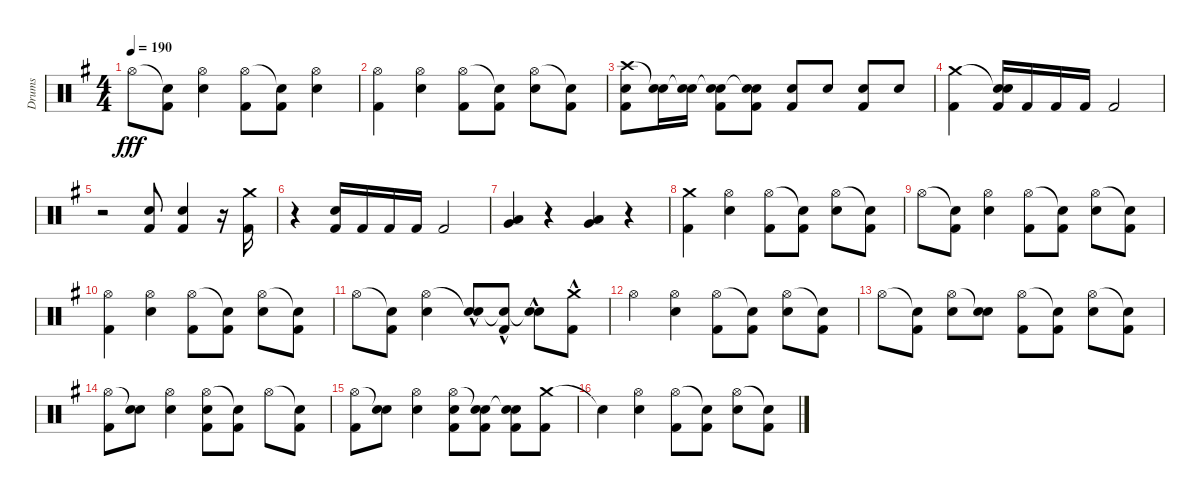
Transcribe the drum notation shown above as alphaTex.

\track ("Drums" "Drums") {instrument percussion}
\staff {score}
\articulation defaults
\ts (4 4)
\tempo 190
\clef neutral
\ks eminor "Hi-Hat (open)".8{dy fff}
("Snare (hit)"{t} "Kick (hit) 2").8 ("Hi-Hat (open)" "Electric Snare (hit)").4 ("Hi-Hat (open)" "Kick (hit) 2").8 ("Snare (hit)"{t} "Kick (hit) 2").8 ("Hi-Hat (open)" "Electric Snare (hit)").4 |
("Hi-Hat (open)" "Kick (hit) 2").4 ("Hi-Hat (open)" "Electric Snare (hit)").4 ("Hi-Hat (open)" "Kick (hit) 2").8 ("Snare (hit)"{t} "Kick (hit) 2").8 ("Hi-Hat (open)" "Electric Snare (hit)").8 ("Snare (hit)"{t} "Kick (hit) 2").8 |
("Crash high (hit)" "Electric Snare (hit)" "Kick (hit) 2").8 ("Snare (hit)"{t} "Electric Snare (hit)").16 ("Snare (hit)"{t} "Electric Snare (hit)").16 ("Snare (hit)"{t} "Electric Snare (hit)" "Kick (hit) 2").8 ("Snare (hit)"{t} "Electric Snare (hit)" "Kick (hit) 2").8 ("Electric Snare (hit)" "Kick (hit) 2").8 "Electric Snare (hit)".8 ("Electric Snare (hit)" "Kick (hit) 2").8 "Electric Snare (hit)".8 |
("Crash medium (hit)" "Kick (hit) 2").4 ("Snare (hit)"{t} "Electric Snare (hit)" "Kick (hit) 2").16 "Kick (hit) 2".16 "Kick (hit) 2".16 "Kick (hit) 2".16 "Kick (hit) 2".2 |
r.2 ("Electric Snare (hit)" "Kick (hit) 2").8 ("Electric Snare (hit)" "Kick (hit) 2").4 r.16 ("Crash medium (hit)" "Kick (hit) 2").16 |
r.4 ("Electric Snare (hit)" "Kick (hit) 2").16 "Kick (hit) 2".16 "Kick (hit) 2".16 "Kick (hit) 2".16 "Kick (hit) 2".2 |
("Very Low Tom (hit)" "Low Floor Tom (hit)").4 r.4 ("Very Low Tom (hit)" "Low Floor Tom (hit)").4 r.4 |
("Crash medium (hit)" "Kick (hit) 2").4 ("Hi-Hat (open)" "Electric Snare (hit)").4 ("Hi-Hat (open)" "Kick (hit) 2").8 ("Snare (hit)"{t} "Kick (hit) 2").8 ("Hi-Hat (open)" "Electric Snare (hit)").8 ("Snare (hit)"{t} "Kick (hit) 2").8 |
"Hi-Hat (open)".8 ("Snare (hit)"{t} "Kick (hit) 2").8 ("Hi-Hat (open)" "Electric Snare (hit)").4 ("Hi-Hat (open)" "Kick (hit) 2").8 ("Snare (hit)"{t} "Kick (hit) 2").8 ("Hi-Hat (open)" "Electric Snare (hit)").8 ("Snare (hit)"{t} "Kick (hit) 2").8 |
("Hi-Hat (open)" "Kick (hit) 2").4 ("Hi-Hat (open)" "Electric Snare (hit)").4 ("Hi-Hat (open)" "Kick (hit) 2").8 ("Snare (hit)"{t} "Kick (hit) 2").8 ("Hi-Hat (open)" "Electric Snare (hit)").8 ("Snare (hit)"{t} "Kick (hit) 2").8 |
"Hi-Hat (open)".8 ("Snare (hit)"{t} "Kick (hit) 2").8 ("Hi-Hat (open)" "Electric Snare (hit)").4 ("Snare (hit)"{t} "Electric Snare (hit)"{hac}).8 ("Snare (hit)"{t} "Kick (hit) 2"{hac}).8 ("Snare (hit)"{t} "Electric Snare (hit)"{hac}).8 ("Crash medium (hit)" "Kick (hit) 2"{hac}).8 |
"Hi-Hat (open)".4 ("Hi-Hat (open)" "Electric Snare (hit)").4 ("Hi-Hat (open)" "Kick (hit) 2").8 ("Snare (hit)"{t} "Kick (hit) 2").8 ("Hi-Hat (open)" "Electric Snare (hit)").8 ("Snare (hit)"{t} "Kick (hit) 2").8 |
"Hi-Hat (open)".8 ("Snare (hit)"{t} "Kick (hit) 2").8 ("Hi-Hat (open)" "Electric Snare (hit)").8 ("Snare (hit)"{t} "Electric Snare (hit)").8 ("Hi-Hat (open)" "Kick (hit) 2").8 ("Snare (hit)"{t} "Kick (hit) 2").8 ("Hi-Hat (open)" "Electric Snare (hit)").8 ("Snare (hit)"{t} "Kick (hit) 2").8 |
("Hi-Hat (open)" "Kick (hit) 2").8 ("Snare (hit)"{t} "Electric Snare (hit)").8 ("Hi-Hat (open)" "Electric Snare (hit)").4 ("Hi-Hat (open)" "Electric Snare (hit)" "Kick (hit) 2").8 ("Snare (hit)"{t} "Kick (hit) 2").8 "Hi-Hat (open)".8 ("Snare (hit)"{t} "Kick (hit) 2").8 |
("Hi-Hat (open)" "Kick (hit) 2").8 ("Snare (hit)"{t} "Electric Snare (hit)").8 ("Hi-Hat (open)" "Electric Snare (hit)").4 ("Hi-Hat (open)" "Electric Snare (hit)" "Kick (hit) 2").8 ("Snare (hit)"{t} "Electric Snare (hit)" "Kick (hit) 2").8 ("Snare (hit)"{t} "Electric Snare (hit)" "Kick (hit) 2").8 ("Crash medium (hit)" "Kick (hit) 2").8 |
"Snare (hit)"{t}.4 ("Hi-Hat (open)" "Electric Snare (hit)").4 ("Hi-Hat (open)" "Kick (hit) 2").8 ("Snare (hit)"{t} "Kick (hit) 2").8 ("Hi-Hat (open)" "Electric Snare (hit)").8 ("Snare (hit)"{t} "Kick (hit) 2").8
